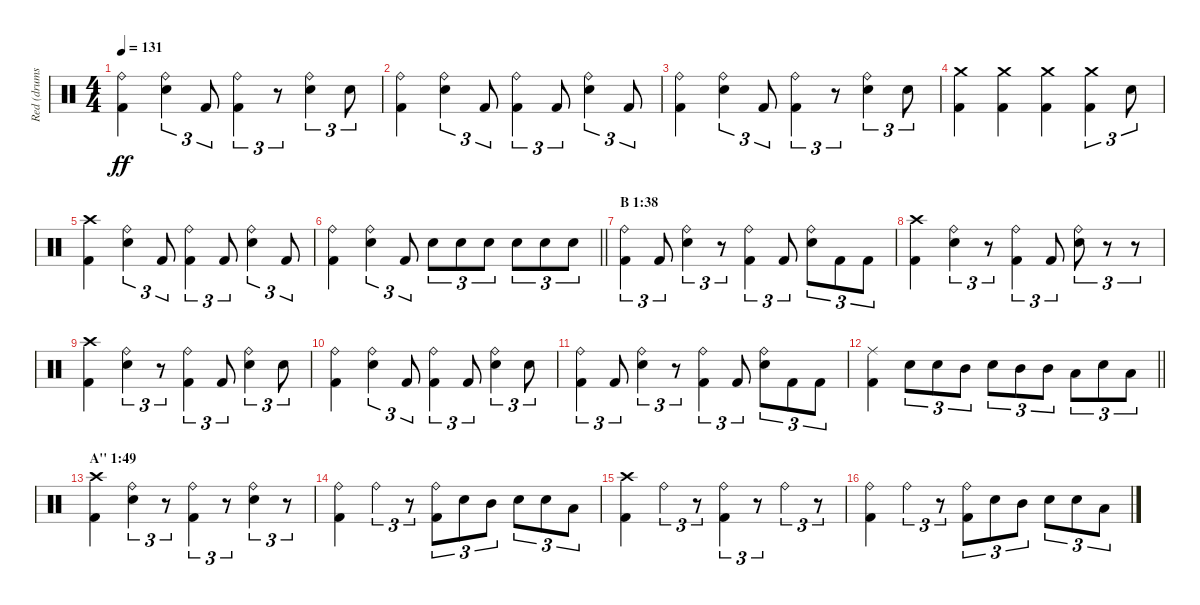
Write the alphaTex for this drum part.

\track ("Red (drums)" "Red (drums") {instrument percussion}
\staff {score}
\articulation defaults
\ts (4 4)
\tempo 131
\clef neutral
\ks c
("Ride (bell)" "Kick (hit) 2").4{dy ff} ("Ride (bell)" "Electric Snare (hit)").4{tu (3 2)} "Kick (hit) 2".8{tu (3 2)} ("Ride (bell)" "Kick (hit) 2").4{tu (3 2)} r.8{tu (3 2)} ("Ride (bell)" "Electric Snare (hit)").4{tu (3 2)} "Electric Snare (hit)".8{tu (3 2)} |
("Ride (bell)" "Kick (hit) 2").4 ("Ride (bell)" "Electric Snare (hit)").4{tu (3 2)} "Kick (hit) 2".8{tu (3 2)} ("Ride (bell)" "Kick (hit) 2").4{tu (3 2)} "Kick (hit) 2".8{tu (3 2)} ("Ride (bell)" "Electric Snare (hit)").4{tu (3 2)} "Kick (hit) 2".8{tu (3 2)} |
("Ride (bell)" "Kick (hit) 2").4 ("Ride (bell)" "Electric Snare (hit)").4{tu (3 2)} "Kick (hit) 2".8{tu (3 2)} ("Ride (bell)" "Kick (hit) 2").4{tu (3 2)} r.8{tu (3 2)} ("Ride (bell)" "Electric Snare (hit)").4{tu (3 2)} "Electric Snare (hit)".8{tu (3 2)} |
("Crash medium (hit)" "Kick (hit) 2").4 ("Crash medium (hit)" "Kick (hit) 2").4 ("Crash medium (hit)" "Kick (hit) 2").4 ("Crash medium (hit)" "Kick (hit) 2").4{tu (3 2)} "Electric Snare (hit)".8{tu (3 2)} |
("Crash high (hit)" "Kick (hit) 2").4 ("Ride (bell)" "Electric Snare (hit)").4{tu (3 2)} "Kick (hit) 2".8{tu (3 2)} ("Ride (bell)" "Kick (hit) 2").4{tu (3 2)} "Kick (hit) 2".8{tu (3 2)} ("Ride (bell)" "Electric Snare (hit)").4{tu (3 2)} "Kick (hit) 2".8{tu (3 2)} |
\barLineRight lightlight
("Ride (bell)" "Kick (hit) 2").4 ("Ride (bell)" "Electric Snare (hit)").4{tu (3 2)} "Kick (hit) 2".8{tu (3 2)} "Electric Snare (hit)".8{tu (3 2)} "Electric Snare (hit)".8{tu (3 2)} "Electric Snare (hit)".8{tu (3 2)} "Electric Snare (hit)".8{tu (3 2)} "Electric Snare (hit)".8{tu (3 2)} "Electric Snare (hit)".8{tu (3 2)} |
\section ("" "B 1:38")
("Ride (bell)" "Kick (hit) 2").4{tu (3 2)} "Kick (hit) 2".8{tu (3 2)} ("Ride (bell)" "Electric Snare (hit)").4{tu (3 2)} r.8{tu (3 2)} ("Ride (bell)" "Kick (hit) 2").4{tu (3 2)} "Kick (hit) 2".8{tu (3 2)} ("Ride (bell)" "Electric Snare (hit)").8{tu (3 2)} "Kick (hit) 2".8{tu (3 2)} "Kick (hit) 2".8{tu (3 2)} |
("Crash high (hit)" "Kick (hit) 2").4 ("Ride (bell)" "Electric Snare (hit)").4{tu (3 2)} r.8{tu (3 2)} ("Ride (bell)" "Kick (hit) 2").4{tu (3 2)} "Kick (hit) 2".8{tu (3 2)} ("Ride (bell)" "Electric Snare (hit)").8{tu (3 2)} r.8{tu (3 2)} r.8{tu (3 2)} |
("Crash high (hit)" "Kick (hit) 2").4 ("Ride (bell)" "Electric Snare (hit)").4{tu (3 2)} r.8{tu (3 2)} ("Ride (bell)" "Kick (hit) 2").4{tu (3 2)} "Kick (hit) 2".8{tu (3 2)} ("Ride (bell)" "Electric Snare (hit)").4{tu (3 2)} "Electric Snare (hit)".8{tu (3 2)} |
("Ride (bell)" "Kick (hit) 2").4 ("Ride (bell)" "Electric Snare (hit)").4{tu (3 2)} "Kick (hit) 2".8{tu (3 2)} ("Ride (bell)" "Kick (hit) 2").4{tu (3 2)} "Kick (hit) 2".8{tu (3 2)} ("Ride (bell)" "Electric Snare (hit)").4{tu (3 2)} "Electric Snare (hit)".8{tu (3 2)} |
("Ride (bell)" "Kick (hit) 2").4{tu (3 2)} "Kick (hit) 2".8{tu (3 2)} ("Ride (bell)" "Electric Snare (hit)").4{tu (3 2)} r.8{tu (3 2)} ("Ride (bell)" "Kick (hit) 2").4{tu (3 2)} "Kick (hit) 2".8{tu (3 2)} ("Ride (bell)" "Electric Snare (hit)").8{tu (3 2)} "Kick (hit) 2".8{tu (3 2)} "Kick (hit) 2".8{tu (3 2)} |
\barLineRight lightlight
("Ride (middle)" "Kick (hit) 2").4 "Electric Snare (hit)".8{tu (3 2)} "Electric Snare (hit)".8{tu (3 2)} "Mid Tom (hit)".8{tu (3 2)} "Electric Snare (hit)".8{tu (3 2)} "Mid Tom (hit)".8{tu (3 2)} "Mid Tom (hit)".8{tu (3 2)} "Low Tom (hit)".8{tu (3 2)} "Electric Snare (hit)".8{tu (3 2)} "Low Tom (hit)".8{tu (3 2)} |
\section ("" "A'' 1:49")
("Crash high (hit)" "Kick (hit) 2").4 ("Ride (bell)" "Electric Snare (hit)").4{tu (3 2)} r.8{tu (3 2)} ("Ride (bell)" "Kick (hit) 2").4{tu (3 2)} r.8{tu (3 2)} ("Ride (bell)" "Electric Snare (hit)").4{tu (3 2)} r.8{tu (3 2)} |
("Ride (bell)" "Kick (hit) 2").4 "Ride (bell)".4{tu (3 2)} r.8{tu (3 2)} ("Ride (bell)" "Kick (hit) 2").8{tu (3 2)} "Electric Snare (hit)".8{tu (3 2)} "Mid Tom (hit)".8{tu (3 2)} "Electric Snare (hit)".8{tu (3 2)} "Electric Snare (hit)".8{tu (3 2)} "Low Tom (hit)".8{tu (3 2)} |
("Crash high (hit)" "Kick (hit) 2").4 "Ride (bell)".4{tu (3 2)} r.8{tu (3 2)} ("Ride (bell)" "Kick (hit) 2").4{tu (3 2)} r.8{tu (3 2)} "Ride (bell)".4{tu (3 2)} r.8{tu (3 2)} |
("Ride (bell)" "Kick (hit) 2").4 "Ride (bell)".4{tu (3 2)} r.8{tu (3 2)} ("Ride (bell)" "Kick (hit) 2").8{tu (3 2)} "Electric Snare (hit)".8{tu (3 2)} "Mid Tom (hit)".8{tu (3 2)} "Electric Snare (hit)".8{tu (3 2)} "Electric Snare (hit)".8{tu (3 2)} "Low Tom (hit)".8{tu (3 2)}
